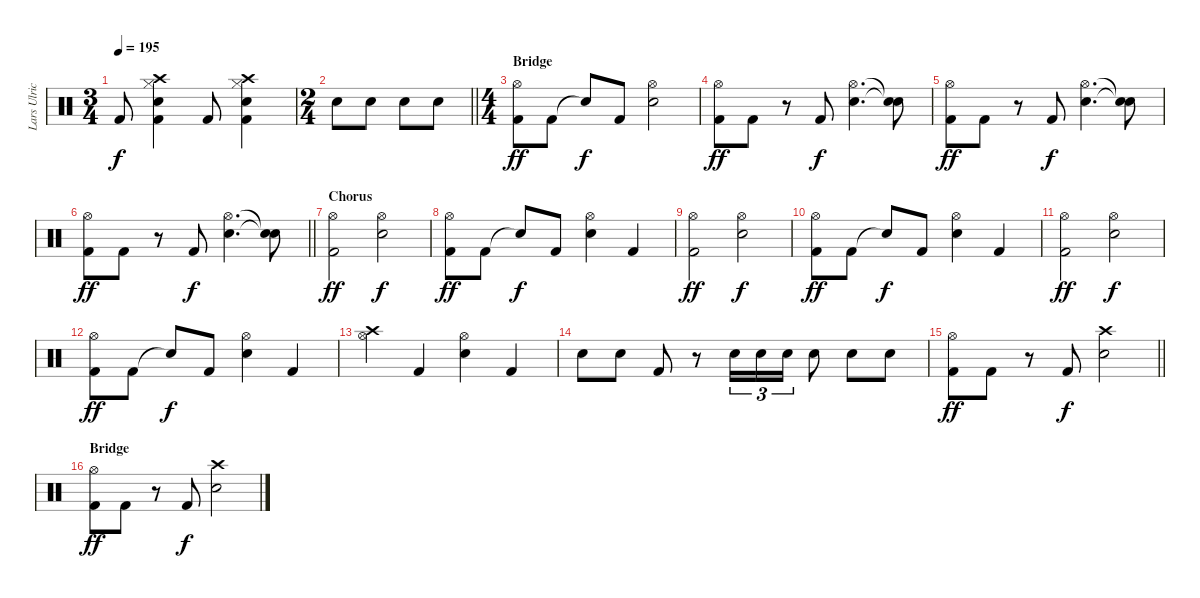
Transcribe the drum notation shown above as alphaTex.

\track ("Lars Ulrich" "Lars Ulric") {instrument percussion}
\staff {score}
\articulation defaults
\ts (3 4)
\tempo 195
\clef neutral
\ks c "Kick (hit) 2".8{dy f}
("Kick (hit) 2" "Snare (hit) 2" "Hi-Hat (closed)" "Crash high (hit)").4 "Kick (hit) 2".8 ("Kick (hit) 2" "Snare (hit) 2" "Hi-Hat (closed)" "Crash high (hit)").4 |
\ts (2 4)
\barLineRight lightlight "Snare (hit) 2".8 "Snare (hit) 2".8 "Snare (hit) 2".8 "Snare (hit) 2".8
|
\ts (4 4)
\section ("" "Bridge")
("Kick (hit) 2" "Hi-Hat (open)").8{dy ff} "Kick (hit) 2".8 "Snare (hit)"{t}.8{dy f} "Kick (hit) 2".8 ("Snare (hit) 2" "Hi-Hat (open)").2 |
("Kick (hit) 2" "Hi-Hat (open)").8{dy ff} "Kick (hit) 2".8 r.8 "Kick (hit) 2".8{dy f} ("Snare (hit) 2" "Hi-Hat (open)").4{d} ("Snare (hit)"{t} "Snare (hit)"{t}).8 |
("Kick (hit) 2" "Hi-Hat (open)").8{dy ff} "Kick (hit) 2".8 r.8 "Kick (hit) 2".8{dy f} ("Snare (hit) 2" "Hi-Hat (open)").4{d} ("Snare (hit)"{t} "Snare (hit)"{t}).8 |
\barLineRight lightlight
("Kick (hit) 2" "Hi-Hat (open)").8{dy ff} "Kick (hit) 2".8 r.8 "Kick (hit) 2".8{dy f} ("Snare (hit) 2" "Hi-Hat (open)").4{d} ("Snare (hit)"{t} "Snare (hit)"{t}).8 |
\section ("" "Chorus")
("Kick (hit) 2" "Hi-Hat (open)").2{dy ff} ("Snare (hit) 2" "Hi-Hat (open)").2{dy f} |
("Kick (hit) 2" "Hi-Hat (open)").8{dy ff} "Kick (hit) 2".8 "Snare (hit)"{t}.8{dy f} "Kick (hit) 2".8 ("Snare (hit) 2" "Hi-Hat (open)").4 "Kick (hit) 2".4 |
("Kick (hit) 2" "Hi-Hat (open)").2{dy ff} ("Snare (hit) 2" "Hi-Hat (open)").2{dy f} |
("Kick (hit) 2" "Hi-Hat (open)").8{dy ff} "Kick (hit) 2".8 "Snare (hit)"{t}.8{dy f} "Kick (hit) 2".8 ("Snare (hit) 2" "Hi-Hat (open)").4 "Kick (hit) 2".4 |
("Kick (hit) 2" "Hi-Hat (open)").2{dy ff} ("Snare (hit) 2" "Hi-Hat (open)").2{dy f} |
("Kick (hit) 2" "Hi-Hat (open)").8{dy ff} "Kick (hit) 2".8 "Snare (hit)"{t}.8{dy f} "Kick (hit) 2".8 ("Snare (hit) 2" "Hi-Hat (open)").4 "Kick (hit) 2".4 |
("Crash high (hit)" "Hi-Hat (open)").4 "Kick (hit) 2".4 ("Hi-Hat (open)" "Snare (hit) 2").4 "Kick (hit) 2".4 |
"Snare (hit) 2".8 "Snare (hit) 2".8 "Kick (hit) 2".8 r.8 "Snare (hit) 2".16{tu (3 2)} "Snare (hit) 2".16{tu (3 2)} "Snare (hit) 2".16{tu (3 2)} "Snare (hit) 2".8 "Snare (hit) 2".8 "Snare (hit) 2".8 |
\barLineRight lightlight
("Kick (hit) 2" "Hi-Hat (open)").8{dy ff} "Kick (hit) 2".8 r.8 "Kick (hit) 2".8{dy f} ("Snare (hit) 2" "Crash high (hit)").2 |
\section ("" "Bridge")
("Kick (hit) 2" "Hi-Hat (open)").8{dy ff} "Kick (hit) 2".8 r.8 "Kick (hit) 2".8{dy f} ("Snare (hit) 2" "Crash high (hit)").2
